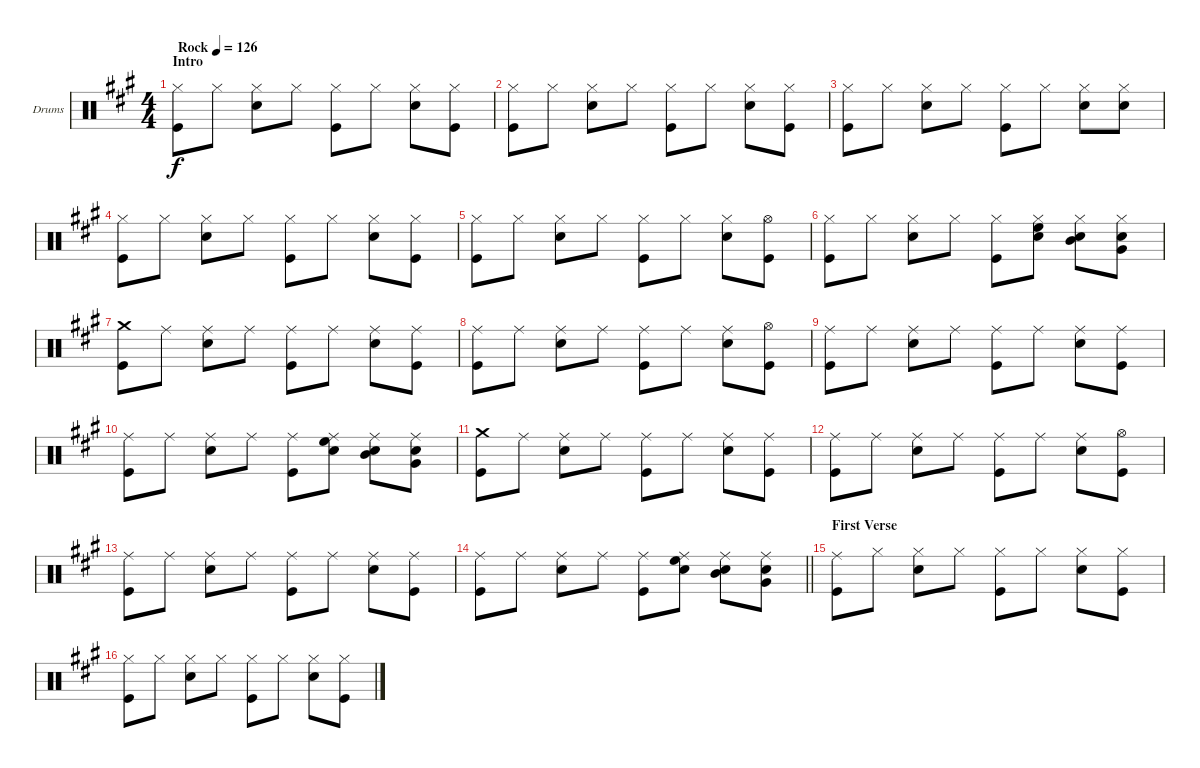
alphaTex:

\bracketExtendMode groupsimilarinstruments
\firstSystemTrackNameOrientation horizontal
\otherSystemsTrackNameOrientation horizontal
\track ("Drumkit" "Drums") {instrument percussion}
\staff {score}
\articulation defaults
\ts (4 4)
\beaming (8 2 2 2 2)
\section ("" "Intro")
\tempo (126 "Rock")
\clef neutral
\ks a
("Hi-Hat (closed)" "Kick (hit)").8{dy f} "Hi-Hat (closed)".8 ("Hi-Hat (closed)" "Snare (hit) 2").8 "Hi-Hat (closed)".8 ("Hi-Hat (closed)" "Kick (hit)").8 "Hi-Hat (closed)".8 ("Hi-Hat (closed)" "Snare (hit) 2").8 ("Hi-Hat (closed)" "Kick (hit)").8 |
("Hi-Hat (closed)" "Kick (hit)").8 "Hi-Hat (closed)".8 ("Hi-Hat (closed)" "Snare (hit) 2").8 "Hi-Hat (closed)".8 ("Hi-Hat (closed)" "Kick (hit)").8 "Hi-Hat (closed)".8 ("Hi-Hat (closed)" "Snare (hit) 2").8 ("Hi-Hat (closed)" "Kick (hit)").8 |
("Hi-Hat (closed)" "Kick (hit)").8 "Hi-Hat (closed)".8 ("Hi-Hat (closed)" "Snare (hit) 2").8 "Hi-Hat (closed)".8 ("Hi-Hat (closed)" "Kick (hit)").8 "Hi-Hat (closed)".8 ("Hi-Hat (closed)" "Snare (hit) 2").8 ("Hi-Hat (closed)" "Snare (hit) 2").8 |
("Hi-Hat (closed)" "Kick (hit)").8 "Hi-Hat (closed)".8 ("Hi-Hat (closed)" "Snare (hit) 2").8 "Hi-Hat (closed)".8 ("Hi-Hat (closed)" "Kick (hit)").8 "Hi-Hat (closed)".8 ("Hi-Hat (closed)" "Snare (hit) 2").8 ("Hi-Hat (closed)" "Kick (hit)").8 |
("Hi-Hat (closed)" "Kick (hit)").8 "Hi-Hat (closed)".8 ("Hi-Hat (closed)" "Snare (hit) 2").8 "Hi-Hat (closed)".8 ("Hi-Hat (closed)" "Kick (hit)").8 "Hi-Hat (closed)".8 ("Hi-Hat (closed)" "Snare (hit) 2").8 ("Hi-Hat (open)" "Kick (hit)").8 |
("Hi-Hat (closed)" "Kick (hit)").8 "Hi-Hat (closed)".8 ("Hi-Hat (closed)" "Snare (hit) 2").8 "Hi-Hat (closed)".8 ("Hi-Hat (closed)" "Kick (hit)").8 ("Hi-Hat (closed)" "High Floor Tom (hit)" "Snare (hit) 2").8 ("Hi-Hat (closed)" "Mid Tom (hit)" "Snare (hit) 2").8 ("Hi-Hat (closed)" "Very Low Tom (hit)" "Snare (hit) 2").8 |
("Crash medium (hit)" "Kick (hit)").8 "Ride (middle)".8 ("Ride (middle)" "Snare (hit) 2").8 "Ride (middle)".8 ("Ride (middle)" "Kick (hit)").8 "Ride (middle)".8 ("Ride (middle)" "Snare (hit) 2").8 ("Ride (middle)" "Kick (hit)").8 |
("Ride (middle)" "Kick (hit)").8 "Ride (middle)".8 ("Ride (middle)" "Snare (hit) 2").8 "Ride (middle)".8 ("Ride (middle)" "Kick (hit)").8 "Ride (middle)".8 ("Ride (middle)" "Snare (hit) 2").8 ("Hi-Hat (open)" "Kick (hit)").8 |
("Ride (middle)" "Kick (hit)").8 "Ride (middle)".8 ("Ride (middle)" "Snare (hit) 2").8 "Ride (middle)".8 ("Ride (middle)" "Kick (hit)").8 "Ride (middle)".8 ("Ride (middle)" "Snare (hit) 2").8 ("Ride (middle)" "Kick (hit)").8 |
("Ride (middle)" "Kick (hit)").8 "Ride (middle)".8 ("Ride (middle)" "Snare (hit) 2").8 "Ride (middle)".8 ("Ride (middle)" "Kick (hit)").8 ("Ride (middle)" "High Floor Tom (hit)" "Snare (hit) 2").8 ("Ride (middle)" "Mid Tom (hit)" "Snare (hit) 2").8 ("Ride (middle)" "Very Low Tom (hit)" "Snare (hit) 2").8 |
("Crash medium (hit)" "Kick (hit)").8 "Ride (middle)".8 ("Ride (middle)" "Snare (hit) 2").8 "Ride (middle)".8 ("Ride (middle)" "Kick (hit)").8 "Ride (middle)".8 ("Ride (middle)" "Snare (hit) 2").8 ("Ride (middle)" "Kick (hit)").8 |
("Ride (middle)" "Kick (hit)").8 "Ride (middle)".8 ("Ride (middle)" "Snare (hit) 2").8 "Ride (middle)".8 ("Ride (middle)" "Kick (hit)").8 "Ride (middle)".8 ("Ride (middle)" "Snare (hit) 2").8 ("Hi-Hat (open)" "Kick (hit)").8 |
("Ride (middle)" "Kick (hit)").8 "Ride (middle)".8 ("Ride (middle)" "Snare (hit) 2").8 "Ride (middle)".8 ("Ride (middle)" "Kick (hit)").8 "Ride (middle)".8 ("Ride (middle)" "Snare (hit) 2").8 ("Ride (middle)" "Kick (hit)").8 |
\barLineRight lightlight
("Ride (middle)" "Kick (hit)").8 "Ride (middle)".8 ("Ride (middle)" "Snare (hit) 2").8 "Ride (middle)".8 ("Ride (middle)" "Kick (hit)").8 ("Ride (middle)" "High Floor Tom (hit)" "Snare (hit) 2").8 ("Ride (middle)" "Mid Tom (hit)" "Snare (hit) 2").8 ("Ride (middle)" "Very Low Tom (hit)" "Snare (hit) 2").8 |
\section ("" "First Verse")
("Ride (middle)" "Kick (hit)").8 "Hi-Hat (closed)".8 ("Hi-Hat (closed)" "Snare (hit) 2").8 "Hi-Hat (closed)".8 ("Hi-Hat (closed)" "Kick (hit)").8 "Hi-Hat (closed)".8 ("Hi-Hat (closed)" "Snare (hit) 2").8 ("Hi-Hat (closed)" "Kick (hit)").8 |
("Hi-Hat (closed)" "Kick (hit)").8 "Hi-Hat (closed)".8 ("Hi-Hat (closed)" "Snare (hit) 2").8 "Hi-Hat (closed)".8 ("Hi-Hat (closed)" "Kick (hit)").8 "Hi-Hat (closed)".8 ("Hi-Hat (closed)" "Snare (hit) 2").8 ("Hi-Hat (closed)" "Kick (hit)").8
